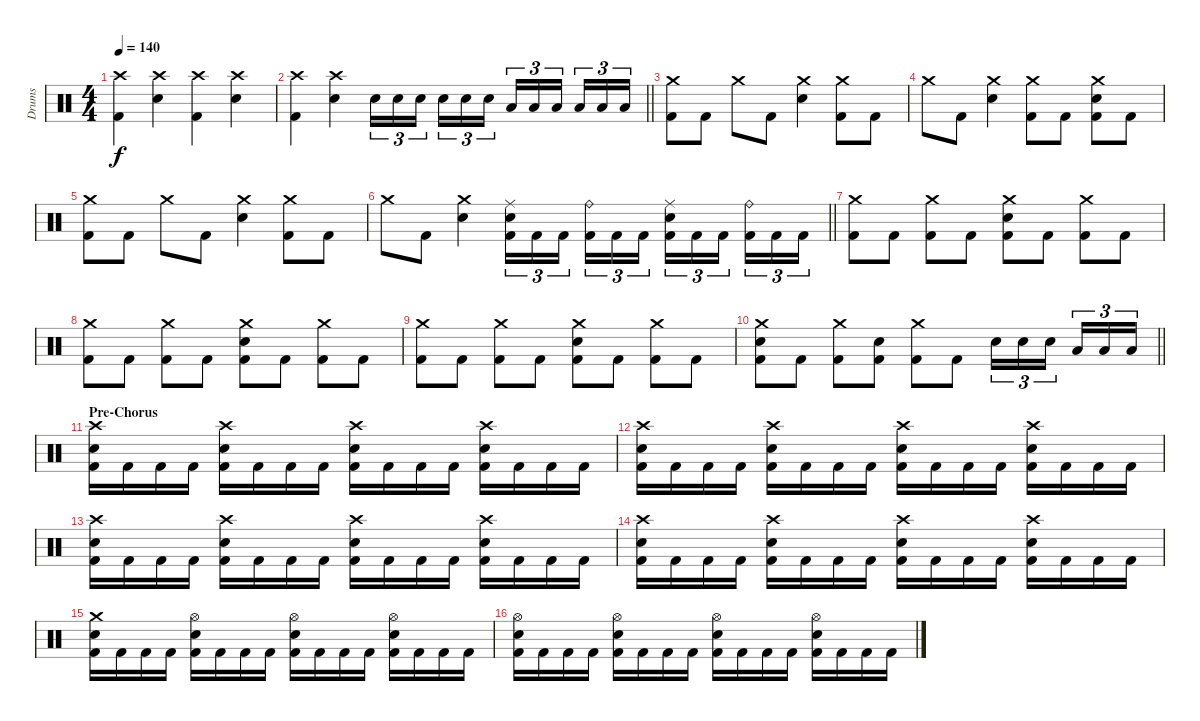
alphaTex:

\track ("Drums" "Drums") {instrument percussion}
\staff {score}
\articulation defaults
\ts (4 4)
\tempo 140
\clef neutral
\ks c
("Crash high (hit)" "Kick (hit) 2").4{dy f} ("Crash high (hit)" "Electric Snare (hit)").4 ("Crash high (hit)" "Kick (hit) 2").4 ("Crash high (hit)" "Electric Snare (hit)").4 |
\barLineRight lightlight
("Crash high (hit)" "Kick (hit) 2").4 ("Crash high (hit)" "Electric Snare (hit)").4 "Electric Snare (hit)".16{tu (3 2)} "Electric Snare (hit)".16{tu (3 2)} "Electric Snare (hit)".16{tu (3 2)} "Electric Snare (hit)".16{tu (3 2)} "Electric Snare (hit)".16{tu (3 2)} "Electric Snare (hit)".16{tu (3 2)} "Low Tom (hit)".16{tu (3 2)} "Low Tom (hit)".16{tu (3 2)} "Low Tom (hit)".16{tu (3 2)} "Low Tom (hit)".16{tu (3 2)} "Low Tom (hit)".16{tu (3 2)} "Low Tom (hit)".16{tu (3 2)} |
\section ("" "")
("Crash medium (hit)" "Kick (hit) 2").8 "Kick (hit) 2".8 "Crash medium (hit)".8 "Kick (hit) 2".8 ("Crash medium (hit)" "Electric Snare (hit)").4 ("Crash medium (hit)" "Kick (hit) 2").8 "Kick (hit) 2".8 |
"Crash medium (hit)".8 "Kick (hit) 2".8 ("Crash medium (hit)" "Electric Snare (hit)").4 ("Crash medium (hit)" "Kick (hit) 2").8 "Kick (hit) 2".8 ("Crash medium (hit)" "Electric Snare (hit)" "Kick (hit) 2").8 "Kick (hit) 2".8 |
("Crash medium (hit)" "Kick (hit) 2").8 "Kick (hit) 2".8 "Crash medium (hit)".8 "Kick (hit) 2".8 ("Crash medium (hit)" "Electric Snare (hit)").4 ("Crash medium (hit)" "Kick (hit) 2").8 "Kick (hit) 2".8 |
\barLineRight lightlight "Crash medium (hit)".8 "Kick (hit) 2".8
("Crash medium (hit)" "Electric Snare (hit)").4 ("Ride (middle)" "Electric Snare (hit)" "Kick (hit) 2").16{tu (3 2)} "Kick (hit) 2".16{tu (3 2)} "Kick (hit) 2".16{tu (3 2)} ("Ride (bell)" "Kick (hit) 2").16{tu (3 2)} "Kick (hit) 2".16{tu (3 2)} "Kick (hit) 2".16{tu (3 2)} ("Ride (middle)" "Electric Snare (hit)" "Kick (hit) 2").16{tu (3 2)} "Kick (hit) 2".16{tu (3 2)} "Kick (hit) 2".16{tu (3 2)} ("Ride (bell)" "Kick (hit) 2").16{tu (3 2)} "Kick (hit) 2".16{tu (3 2)} "Kick (hit) 2".16{tu (3 2)} |
\section ("" "")
("Crash medium (hit)" "Kick (hit) 2").8 "Kick (hit) 2".8 ("Crash medium (hit)" "Kick (hit) 2").8 "Kick (hit) 2".8 ("Crash medium (hit)" "Electric Snare (hit)" "Kick (hit) 2").8 "Kick (hit) 2".8 ("Crash medium (hit)" "Kick (hit) 2").8 "Kick (hit) 2".8 |
("Crash medium (hit)" "Kick (hit) 2").8 "Kick (hit) 2".8 ("Crash medium (hit)" "Kick (hit) 2").8 "Kick (hit) 2".8 ("Crash medium (hit)" "Electric Snare (hit)" "Kick (hit) 2").8 "Kick (hit) 2".8 ("Crash medium (hit)" "Kick (hit) 2").8 "Kick (hit) 2".8 |
("Crash medium (hit)" "Kick (hit) 2").8 "Kick (hit) 2".8 ("Crash medium (hit)" "Kick (hit) 2").8 "Kick (hit) 2".8 ("Crash medium (hit)" "Electric Snare (hit)" "Kick (hit) 2").8 "Kick (hit) 2".8 ("Crash medium (hit)" "Kick (hit) 2").8 "Kick (hit) 2".8 |
\barLineRight lightlight
("Crash medium (hit)" "Electric Snare (hit)" "Kick (hit) 2").8 "Kick (hit) 2".8 ("Crash medium (hit)" "Kick (hit) 2").8 ("Electric Snare (hit)" "Kick (hit) 2").8 ("Crash medium (hit)" "Kick (hit) 2").8 "Kick (hit) 2".8 "Electric Snare (hit)".16{tu (3 2)} "Electric Snare (hit)".16{tu (3 2)} "Electric Snare (hit)".16{tu (3 2)} "Low Tom (hit)".16{tu (3 2)} "Low Tom (hit)".16{tu (3 2)} "Low Tom (hit)".16{tu (3 2)} |
\section ("" "Pre-Chorus")
("Crash high (hit)" "Electric Snare (hit)" "Kick (hit) 2").16 "Kick (hit) 2".16 "Kick (hit) 2".16 "Kick (hit) 2".16 ("Crash high (hit)" "Electric Snare (hit)" "Kick (hit) 2").16 "Kick (hit) 2".16 "Kick (hit) 2".16 "Kick (hit) 2".16 ("Crash high (hit)" "Electric Snare (hit)" "Kick (hit) 2").16 "Kick (hit) 2".16 "Kick (hit) 2".16 "Kick (hit) 2".16 ("Crash high (hit)" "Electric Snare (hit)" "Kick (hit) 2").16 "Kick (hit) 2".16 "Kick (hit) 2".16 "Kick (hit) 2".16 |
("Crash high (hit)" "Electric Snare (hit)" "Kick (hit) 2").16 "Kick (hit) 2".16 "Kick (hit) 2".16 "Kick (hit) 2".16 ("Crash high (hit)" "Electric Snare (hit)" "Kick (hit) 2").16 "Kick (hit) 2".16 "Kick (hit) 2".16 "Kick (hit) 2".16 ("Crash high (hit)" "Electric Snare (hit)" "Kick (hit) 2").16 "Kick (hit) 2".16 "Kick (hit) 2".16 "Kick (hit) 2".16 ("Crash high (hit)" "Electric Snare (hit)" "Kick (hit) 2").16 "Kick (hit) 2".16 "Kick (hit) 2".16 "Kick (hit) 2".16 |
("Crash high (hit)" "Electric Snare (hit)" "Kick (hit) 2").16 "Kick (hit) 2".16 "Kick (hit) 2".16 "Kick (hit) 2".16 ("Crash high (hit)" "Electric Snare (hit)" "Kick (hit) 2").16 "Kick (hit) 2".16 "Kick (hit) 2".16 "Kick (hit) 2".16 ("Crash high (hit)" "Electric Snare (hit)" "Kick (hit) 2").16 "Kick (hit) 2".16 "Kick (hit) 2".16 "Kick (hit) 2".16 ("Crash high (hit)" "Electric Snare (hit)" "Kick (hit) 2").16 "Kick (hit) 2".16 "Kick (hit) 2".16 "Kick (hit) 2".16 |
("Crash high (hit)" "Electric Snare (hit)" "Kick (hit) 2").16 "Kick (hit) 2".16 "Kick (hit) 2".16 "Kick (hit) 2".16 ("Crash high (hit)" "Electric Snare (hit)" "Kick (hit) 2").16 "Kick (hit) 2".16 "Kick (hit) 2".16 "Kick (hit) 2".16 ("Crash high (hit)" "Electric Snare (hit)" "Kick (hit) 2").16 "Kick (hit) 2".16 "Kick (hit) 2".16 "Kick (hit) 2".16 ("Crash high (hit)" "Electric Snare (hit)" "Kick (hit) 2").16 "Kick (hit) 2".16 "Kick (hit) 2".16 "Kick (hit) 2".16 |
("Crash medium (hit)" "Electric Snare (hit)" "Kick (hit) 2").16 "Kick (hit) 2".16 "Kick (hit) 2".16 "Kick (hit) 2".16 ("Hi-Hat (open)" "Electric Snare (hit)" "Kick (hit) 2").16 "Kick (hit) 2".16 "Kick (hit) 2".16 "Kick (hit) 2".16 ("Hi-Hat (open)" "Electric Snare (hit)" "Kick (hit) 2").16 "Kick (hit) 2".16 "Kick (hit) 2".16 "Kick (hit) 2".16 ("Hi-Hat (open)" "Electric Snare (hit)" "Kick (hit) 2").16 "Kick (hit) 2".16 "Kick (hit) 2".16 "Kick (hit) 2".16 |
("Hi-Hat (open)" "Electric Snare (hit)" "Kick (hit) 2").16 "Kick (hit) 2".16 "Kick (hit) 2".16 "Kick (hit) 2".16 ("Hi-Hat (open)" "Electric Snare (hit)" "Kick (hit) 2").16 "Kick (hit) 2".16 "Kick (hit) 2".16 "Kick (hit) 2".16 ("Hi-Hat (open)" "Electric Snare (hit)" "Kick (hit) 2").16 "Kick (hit) 2".16 "Kick (hit) 2".16 "Kick (hit) 2".16 ("Hi-Hat (open)" "Electric Snare (hit)" "Kick (hit) 2").16 "Kick (hit) 2".16 "Kick (hit) 2".16 "Kick (hit) 2".16
